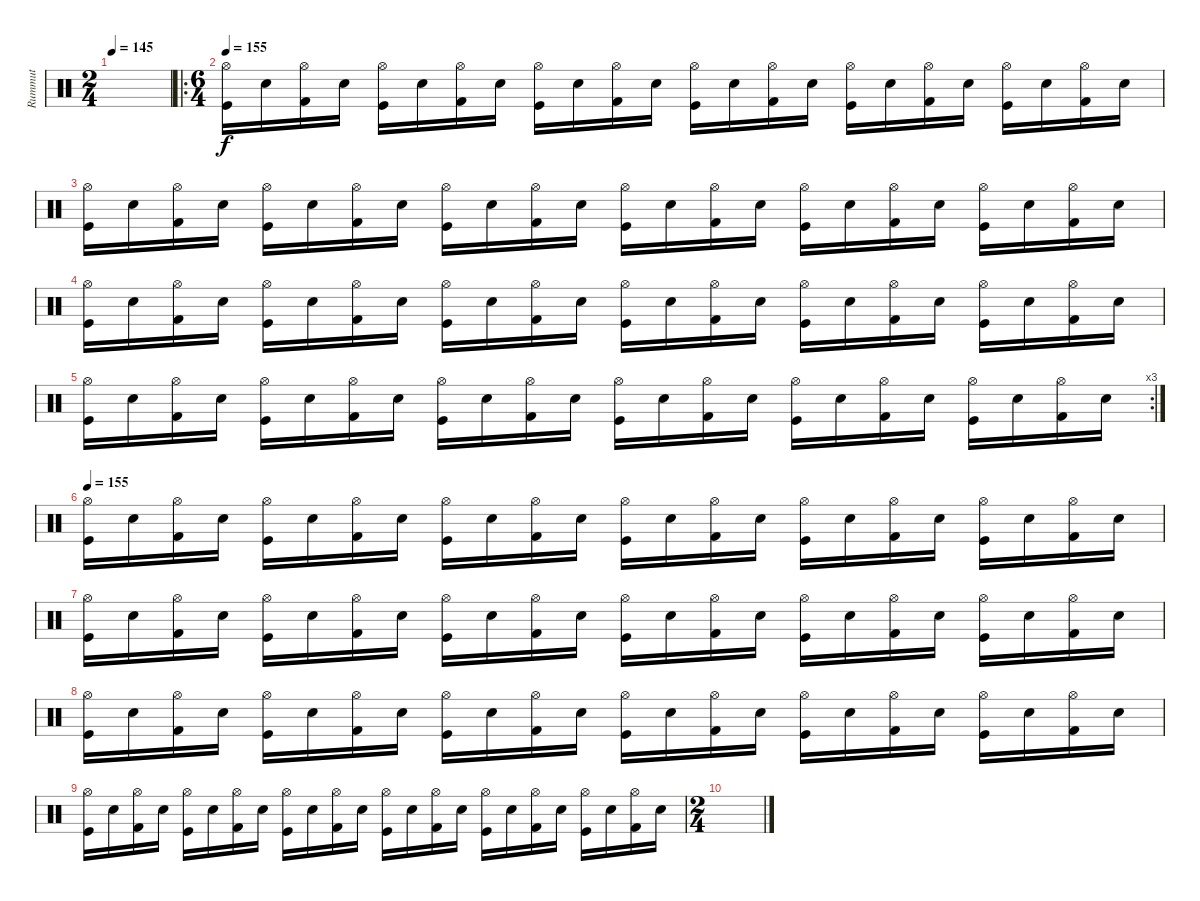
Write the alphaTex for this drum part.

\track ("Rummut" "Rummut") {instrument percussion}
\staff {score}
\articulation defaults
\ts (2 4)
\tempo 145
\clef neutral
\ks c
|
\ro
\ts (6 4)
\tempo 155
("Hi-Hat (open)" "Kick (hit)").16 "Snare (hit) 2".16 ("Hi-Hat (open)" "Kick (hit) 2").16 "Snare (hit) 2".16 ("Hi-Hat (open)" "Kick (hit)").16 "Snare (hit) 2".16 ("Hi-Hat (open)" "Kick (hit) 2").16 "Snare (hit) 2".16 ("Hi-Hat (open)" "Kick (hit)").16 "Snare (hit) 2".16 ("Hi-Hat (open)" "Kick (hit) 2").16 "Snare (hit) 2".16 ("Hi-Hat (open)" "Kick (hit)").16 "Snare (hit) 2".16 ("Hi-Hat (open)" "Kick (hit) 2").16 "Snare (hit) 2".16 ("Hi-Hat (open)" "Kick (hit)").16 "Snare (hit) 2".16 ("Hi-Hat (open)" "Kick (hit) 2").16 "Snare (hit) 2".16 ("Hi-Hat (open)" "Kick (hit)").16 "Snare (hit) 2".16 ("Hi-Hat (open)" "Kick (hit) 2").16 "Snare (hit) 2".16 |
("Hi-Hat (open)" "Kick (hit)").16 "Snare (hit) 2".16 ("Hi-Hat (open)" "Kick (hit) 2").16 "Snare (hit) 2".16 ("Hi-Hat (open)" "Kick (hit)").16 "Snare (hit) 2".16 ("Hi-Hat (open)" "Kick (hit) 2").16 "Snare (hit) 2".16 ("Hi-Hat (open)" "Kick (hit)").16 "Snare (hit) 2".16 ("Hi-Hat (open)" "Kick (hit) 2").16 "Snare (hit) 2".16 ("Hi-Hat (open)" "Kick (hit)").16 "Snare (hit) 2".16 ("Hi-Hat (open)" "Kick (hit) 2").16 "Snare (hit) 2".16 ("Hi-Hat (open)" "Kick (hit)").16 "Snare (hit) 2".16 ("Hi-Hat (open)" "Kick (hit) 2").16 "Snare (hit) 2".16 ("Hi-Hat (open)" "Kick (hit)").16 "Snare (hit) 2".16 ("Hi-Hat (open)" "Kick (hit) 2").16 "Snare (hit) 2".16 |
("Hi-Hat (open)" "Kick (hit)").16 "Snare (hit) 2".16 ("Hi-Hat (open)" "Kick (hit) 2").16 "Snare (hit) 2".16 ("Hi-Hat (open)" "Kick (hit)").16 "Snare (hit) 2".16 ("Hi-Hat (open)" "Kick (hit) 2").16 "Snare (hit) 2".16 ("Hi-Hat (open)" "Kick (hit)").16 "Snare (hit) 2".16 ("Hi-Hat (open)" "Kick (hit) 2").16 "Snare (hit) 2".16 ("Hi-Hat (open)" "Kick (hit)").16 "Snare (hit) 2".16 ("Hi-Hat (open)" "Kick (hit) 2").16 "Snare (hit) 2".16 ("Hi-Hat (open)" "Kick (hit)").16 "Snare (hit) 2".16 ("Hi-Hat (open)" "Kick (hit) 2").16 "Snare (hit) 2".16 ("Hi-Hat (open)" "Kick (hit)").16 "Snare (hit) 2".16 ("Hi-Hat (open)" "Kick (hit) 2").16 "Snare (hit) 2".16 |
\rc 3
("Hi-Hat (open)" "Kick (hit)").16 "Snare (hit) 2".16 ("Hi-Hat (open)" "Kick (hit) 2").16 "Snare (hit) 2".16 ("Hi-Hat (open)" "Kick (hit)").16 "Snare (hit) 2".16 ("Hi-Hat (open)" "Kick (hit) 2").16 "Snare (hit) 2".16 ("Hi-Hat (open)" "Kick (hit)").16 "Snare (hit) 2".16 ("Hi-Hat (open)" "Kick (hit) 2").16 "Snare (hit) 2".16 ("Hi-Hat (open)" "Kick (hit)").16 "Snare (hit) 2".16 ("Hi-Hat (open)" "Kick (hit) 2").16 "Snare (hit) 2".16 ("Hi-Hat (open)" "Kick (hit)").16 "Snare (hit) 2".16 ("Hi-Hat (open)" "Kick (hit) 2").16 "Snare (hit) 2".16 ("Hi-Hat (open)" "Kick (hit)").16 "Snare (hit) 2".16 ("Hi-Hat (open)" "Kick (hit) 2").16 "Snare (hit) 2".16 |
\tempo 155
("Hi-Hat (open)" "Kick (hit)").16 "Snare (hit) 2".16 ("Hi-Hat (open)" "Kick (hit) 2").16 "Snare (hit) 2".16 ("Hi-Hat (open)" "Kick (hit)").16 "Snare (hit) 2".16 ("Hi-Hat (open)" "Kick (hit) 2").16 "Snare (hit) 2".16 ("Hi-Hat (open)" "Kick (hit)").16 "Snare (hit) 2".16 ("Hi-Hat (open)" "Kick (hit) 2").16 "Snare (hit) 2".16 ("Hi-Hat (open)" "Kick (hit)").16 "Snare (hit) 2".16 ("Hi-Hat (open)" "Kick (hit) 2").16 "Snare (hit) 2".16 ("Hi-Hat (open)" "Kick (hit)").16 "Snare (hit) 2".16 ("Hi-Hat (open)" "Kick (hit) 2").16 "Snare (hit) 2".16 ("Hi-Hat (open)" "Kick (hit)").16 "Snare (hit) 2".16 ("Hi-Hat (open)" "Kick (hit) 2").16 "Snare (hit) 2".16 |
("Hi-Hat (open)" "Kick (hit)").16 "Snare (hit) 2".16 ("Hi-Hat (open)" "Kick (hit) 2").16 "Snare (hit) 2".16 ("Hi-Hat (open)" "Kick (hit)").16 "Snare (hit) 2".16 ("Hi-Hat (open)" "Kick (hit) 2").16 "Snare (hit) 2".16 ("Hi-Hat (open)" "Kick (hit)").16 "Snare (hit) 2".16 ("Hi-Hat (open)" "Kick (hit) 2").16 "Snare (hit) 2".16 ("Hi-Hat (open)" "Kick (hit)").16 "Snare (hit) 2".16 ("Hi-Hat (open)" "Kick (hit) 2").16 "Snare (hit) 2".16 ("Hi-Hat (open)" "Kick (hit)").16 "Snare (hit) 2".16 ("Hi-Hat (open)" "Kick (hit) 2").16 "Snare (hit) 2".16 ("Hi-Hat (open)" "Kick (hit)").16 "Snare (hit) 2".16 ("Hi-Hat (open)" "Kick (hit) 2").16 "Snare (hit) 2".16 |
("Hi-Hat (open)" "Kick (hit)").16 "Snare (hit) 2".16 ("Hi-Hat (open)" "Kick (hit) 2").16 "Snare (hit) 2".16 ("Hi-Hat (open)" "Kick (hit)").16 "Snare (hit) 2".16 ("Hi-Hat (open)" "Kick (hit) 2").16 "Snare (hit) 2".16 ("Hi-Hat (open)" "Kick (hit)").16 "Snare (hit) 2".16 ("Hi-Hat (open)" "Kick (hit) 2").16 "Snare (hit) 2".16 ("Hi-Hat (open)" "Kick (hit)").16 "Snare (hit) 2".16 ("Hi-Hat (open)" "Kick (hit) 2").16 "Snare (hit) 2".16 ("Hi-Hat (open)" "Kick (hit)").16 "Snare (hit) 2".16 ("Hi-Hat (open)" "Kick (hit) 2").16 "Snare (hit) 2".16 ("Hi-Hat (open)" "Kick (hit)").16 "Snare (hit) 2".16 ("Hi-Hat (open)" "Kick (hit) 2").16 "Snare (hit) 2".16 |
("Hi-Hat (open)" "Kick (hit)").16 "Snare (hit) 2".16 ("Hi-Hat (open)" "Kick (hit) 2").16 "Snare (hit) 2".16 ("Hi-Hat (open)" "Kick (hit)").16 "Snare (hit) 2".16 ("Hi-Hat (open)" "Kick (hit) 2").16 "Snare (hit) 2".16 ("Hi-Hat (open)" "Kick (hit)").16 "Snare (hit) 2".16 ("Hi-Hat (open)" "Kick (hit) 2").16 "Snare (hit) 2".16 ("Hi-Hat (open)" "Kick (hit)").16 "Snare (hit) 2".16 ("Hi-Hat (open)" "Kick (hit) 2").16 "Snare (hit) 2".16 ("Hi-Hat (open)" "Kick (hit)").16 "Snare (hit) 2".16 ("Hi-Hat (open)" "Kick (hit) 2").16 "Snare (hit) 2".16 ("Hi-Hat (open)" "Kick (hit)").16 "Snare (hit) 2".16 ("Hi-Hat (open)" "Kick (hit) 2").16 "Snare (hit) 2".16 |
\ts (2 4)
